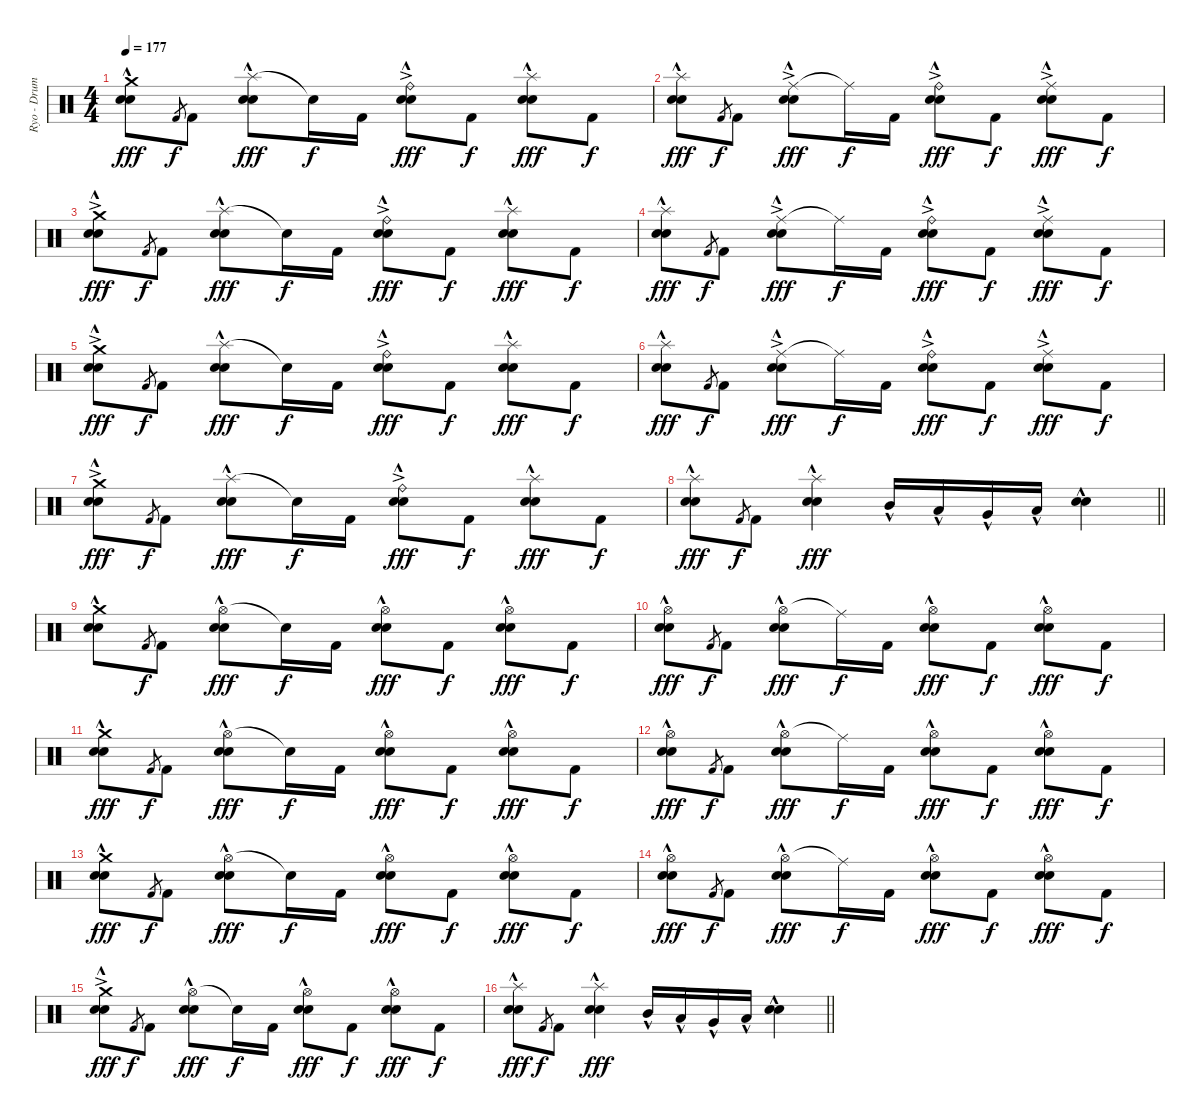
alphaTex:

\track ("Ryo - Drums" "Ryo - Drum") {instrument percussion}
\staff {score}
\articulation defaults
\ts (4 4)
\section ("" "")
\tempo 177
\clef neutral
\ks c
("Crash medium (hit)" "Electric Snare (hit)"{hac} "Snare (hit) 2"{hac}).8{dy fff} "Kick (hit) 2".8{gr dy f} "Kick (hit) 2".8 ("Splash (hit)" "Electric Snare (hit)"{hac} "Snare (hit) 2"{hac}).8{dy fff} "Snare (hit)"{t}.16{dy f} "Kick (hit) 2".16 ("Ride (bell)"{ac} "Electric Snare (hit)"{hac} "Snare (hit) 2"{hac}).8{dy fff} "Kick (hit) 2".8{dy f} ("Splash (hit)" "Electric Snare (hit)"{hac} "Snare (hit) 2"{hac}).8{dy fff} "Kick (hit) 2".8{dy f} |
("Splash (hit)" "Electric Snare (hit)"{hac} "Snare (hit) 2"{hac}).8{dy fff} "Kick (hit) 2".8{gr dy f} "Kick (hit) 2".8 ("Ride (middle)"{ac} "Electric Snare (hit)"{hac} "Snare (hit) 2"{hac}).8{dy fff} "Ride (middle)"{t}.16{dy f} "Kick (hit) 2".16 ("Ride (bell)"{ac} "Electric Snare (hit)"{hac} "Snare (hit) 2"{hac}).8{dy fff} "Kick (hit) 2".8{dy f} ("Ride (middle)"{ac} "Electric Snare (hit)"{hac} "Snare (hit) 2"{hac}).8{dy fff} "Kick (hit) 2".8{dy f} |
("Crash medium (hit)"{ac} "Electric Snare (hit)"{hac} "Snare (hit) 2"{hac}).8{dy fff} "Kick (hit) 2".8{gr dy f} "Kick (hit) 2".8 ("Splash (hit)" "Electric Snare (hit)"{hac} "Snare (hit) 2"{hac}).8{dy fff} "Snare (hit)"{t}.16{dy f} "Kick (hit) 2".16 ("Ride (bell)"{ac} "Electric Snare (hit)"{hac} "Snare (hit) 2"{hac}).8{dy fff} "Kick (hit) 2".8{dy f} ("Splash (hit)" "Electric Snare (hit)"{hac} "Snare (hit) 2"{hac}).8{dy fff} "Kick (hit) 2".8{dy f} |
("Splash (hit)" "Electric Snare (hit)"{hac} "Snare (hit) 2"{hac}).8{dy fff} "Kick (hit) 2".8{gr dy f} "Kick (hit) 2".8 ("Ride (middle)"{ac} "Electric Snare (hit)"{hac} "Snare (hit) 2"{hac}).8{dy fff} "Ride (middle)"{t}.16{dy f} "Kick (hit) 2".16 ("Ride (bell)"{ac} "Electric Snare (hit)"{hac} "Snare (hit) 2"{hac}).8{dy fff} "Kick (hit) 2".8{dy f} ("Ride (middle)"{ac} "Electric Snare (hit)"{hac} "Snare (hit) 2"{hac}).8{dy fff} "Kick (hit) 2".8{dy f} |
("Crash medium (hit)"{ac} "Electric Snare (hit)"{hac} "Snare (hit) 2"{hac}).8{dy fff} "Kick (hit) 2".8{gr dy f} "Kick (hit) 2".8 ("Splash (hit)" "Electric Snare (hit)"{hac} "Snare (hit) 2"{hac}).8{dy fff} "Snare (hit)"{t}.16{dy f} "Kick (hit) 2".16 ("Ride (bell)"{ac} "Electric Snare (hit)"{hac} "Snare (hit) 2"{hac}).8{dy fff} "Kick (hit) 2".8{dy f} ("Splash (hit)" "Electric Snare (hit)"{hac} "Snare (hit) 2"{hac}).8{dy fff} "Kick (hit) 2".8{dy f} |
("Splash (hit)" "Electric Snare (hit)"{hac} "Snare (hit) 2"{hac}).8{dy fff} "Kick (hit) 2".8{gr dy f} "Kick (hit) 2".8 ("Ride (middle)"{ac} "Electric Snare (hit)"{hac} "Snare (hit) 2"{hac}).8{dy fff} "Ride (middle)"{t}.16{dy f} "Kick (hit) 2".16 ("Ride (bell)"{ac} "Electric Snare (hit)"{hac} "Snare (hit) 2"{hac}).8{dy fff} "Kick (hit) 2".8{dy f} ("Ride (middle)"{ac} "Electric Snare (hit)"{hac} "Snare (hit) 2"{hac}).8{dy fff} "Kick (hit) 2".8{dy f} |
("Crash medium (hit)"{ac} "Electric Snare (hit)"{hac} "Snare (hit) 2"{hac}).8{dy fff} "Kick (hit) 2".8{gr dy f} "Kick (hit) 2".8 ("Splash (hit)" "Electric Snare (hit)"{hac} "Snare (hit) 2"{hac}).8{dy fff} "Snare (hit)"{t}.16{dy f} "Kick (hit) 2".16 ("Ride (bell)"{ac} "Electric Snare (hit)"{hac} "Snare (hit) 2"{hac}).8{dy fff} "Kick (hit) 2".8{dy f} ("Splash (hit)" "Electric Snare (hit)"{hac} "Snare (hit) 2"{hac}).8{dy fff} "Kick (hit) 2".8{dy f} |
\barLineRight lightlight
("Splash (hit)"{hac} "Electric Snare (hit)"{hac} "Snare (hit) 2"{hac}).8{dy fff} "Kick (hit) 2".8{gr dy f} "Kick (hit) 2".8 ("Splash (hit)"{hac} "Electric Snare (hit)"{hac} "Snare (hit) 2"{hac}).4{dy fff} "Mid Tom (hit)"{hac}.16 "Low Tom (hit)"{hac}.16 "Very Low Tom (hit)"{hac}.16 "Low Floor Tom (hit)"{hac}.16 ("Electric Snare (hit)"{hac} "Snare (hit) 2"{hac}).4 |
\section ("" "")
("Crash medium (hit)" "Electric Snare (hit)"{hac} "Snare (hit) 2"{hac}).8 "Kick (hit) 2".8{gr dy f} "Kick (hit) 2".8 ("Hi-Hat (open)" "Electric Snare (hit)"{hac} "Snare (hit) 2"{hac}).8{dy fff} "Snare (hit)"{t}.16{dy f} "Kick (hit) 2".16 ("Hi-Hat (open)" "Electric Snare (hit)"{hac} "Snare (hit) 2"{hac}).8{dy fff} "Kick (hit) 2".8{dy f} ("Hi-Hat (open)" "Electric Snare (hit)"{hac} "Snare (hit) 2"{hac}).8{dy fff} "Kick (hit) 2".8{dy f} |
("Hi-Hat (open)" "Electric Snare (hit)"{hac} "Snare (hit) 2"{hac}).8{dy fff} "Kick (hit) 2".8{gr dy f} "Kick (hit) 2".8 ("Hi-Hat (open)" "Electric Snare (hit)"{hac} "Snare (hit) 2"{hac}).8{dy fff} "Ride (middle)"{t}.16{dy f} "Kick (hit) 2".16 ("Hi-Hat (open)" "Electric Snare (hit)"{hac} "Snare (hit) 2"{hac}).8{dy fff} "Kick (hit) 2".8{dy f} ("Hi-Hat (open)" "Electric Snare (hit)"{hac} "Snare (hit) 2"{hac}).8{dy fff} "Kick (hit) 2".8{dy f} |
("Crash medium (hit)" "Electric Snare (hit)"{hac} "Snare (hit) 2"{hac}).8{dy fff} "Kick (hit) 2".8{gr dy f} "Kick (hit) 2".8 ("Hi-Hat (open)" "Electric Snare (hit)"{hac} "Snare (hit) 2"{hac}).8{dy fff} "Snare (hit)"{t}.16{dy f} "Kick (hit) 2".16 ("Hi-Hat (open)" "Electric Snare (hit)"{hac} "Snare (hit) 2"{hac}).8{dy fff} "Kick (hit) 2".8{dy f} ("Hi-Hat (open)" "Electric Snare (hit)"{hac} "Snare (hit) 2"{hac}).8{dy fff} "Kick (hit) 2".8{dy f} |
("Hi-Hat (open)" "Electric Snare (hit)"{hac} "Snare (hit) 2"{hac}).8{dy fff} "Kick (hit) 2".8{gr dy f} "Kick (hit) 2".8 ("Hi-Hat (open)" "Electric Snare (hit)"{hac} "Snare (hit) 2"{hac}).8{dy fff} "Ride (middle)"{t}.16{dy f} "Kick (hit) 2".16 ("Hi-Hat (open)" "Electric Snare (hit)"{hac} "Snare (hit) 2"{hac}).8{dy fff} "Kick (hit) 2".8{dy f} ("Hi-Hat (open)" "Electric Snare (hit)"{hac} "Snare (hit) 2"{hac}).8{dy fff} "Kick (hit) 2".8{dy f} |
("Crash medium (hit)" "Electric Snare (hit)"{hac} "Snare (hit) 2"{hac}).8{dy fff} "Kick (hit) 2".8{gr dy f} "Kick (hit) 2".8 ("Hi-Hat (open)" "Electric Snare (hit)"{hac} "Snare (hit) 2"{hac}).8{dy fff} "Snare (hit)"{t}.16{dy f} "Kick (hit) 2".16 ("Hi-Hat (open)" "Electric Snare (hit)"{hac} "Snare (hit) 2"{hac}).8{dy fff} "Kick (hit) 2".8{dy f} ("Hi-Hat (open)" "Electric Snare (hit)"{hac} "Snare (hit) 2"{hac}).8{dy fff} "Kick (hit) 2".8{dy f} |
("Hi-Hat (open)" "Electric Snare (hit)"{hac} "Snare (hit) 2"{hac}).8{dy fff} "Kick (hit) 2".8{gr dy f} "Kick (hit) 2".8 ("Hi-Hat (open)" "Electric Snare (hit)"{hac} "Snare (hit) 2"{hac}).8{dy fff} "Ride (middle)"{t}.16{dy f} "Kick (hit) 2".16 ("Hi-Hat (open)" "Electric Snare (hit)"{hac} "Snare (hit) 2"{hac}).8{dy fff} "Kick (hit) 2".8{dy f} ("Hi-Hat (open)" "Electric Snare (hit)"{hac} "Snare (hit) 2"{hac}).8{dy fff} "Kick (hit) 2".8{dy f} |
("Crash medium (hit)"{ac} "Electric Snare (hit)"{hac} "Snare (hit) 2"{hac}).8{dy fff} "Kick (hit) 2".8{gr dy f} "Kick (hit) 2".8 ("Hi-Hat (open)" "Electric Snare (hit)"{hac} "Snare (hit) 2"{hac}).8{dy fff} "Snare (hit)"{t}.16{dy f} "Kick (hit) 2".16 ("Hi-Hat (open)" "Electric Snare (hit)"{hac} "Snare (hit) 2"{hac}).8{dy fff} "Kick (hit) 2".8{dy f} ("Hi-Hat (open)" "Electric Snare (hit)"{hac} "Snare (hit) 2"{hac}).8{dy fff} "Kick (hit) 2".8{dy f} |
\barLineRight lightlight
("Splash (hit)"{hac} "Electric Snare (hit)"{hac} "Snare (hit) 2"{hac}).8{dy fff} "Kick (hit) 2".8{gr dy f} "Kick (hit) 2".8 ("Splash (hit)"{hac} "Electric Snare (hit)"{hac} "Snare (hit) 2"{hac}).4{dy fff} "Mid Tom (hit)"{hac}.16 "Low Tom (hit)"{hac}.16 "Very Low Tom (hit)"{hac}.16 "Low Floor Tom (hit)"{hac}.16 ("Electric Snare (hit)"{hac} "Snare (hit) 2"{hac}).4
